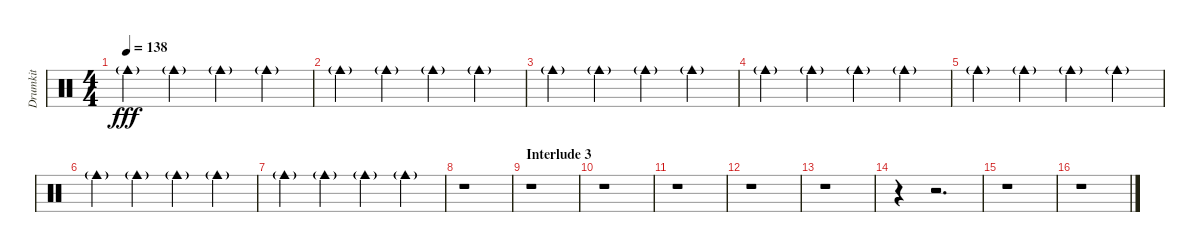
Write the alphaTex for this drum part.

\track ("Drumkit" "Drumkit") {instrument percussion}
\staff {score}
\articulation defaults
\ts (4 4)
\tempo 138
\clef neutral
\ks c "Cowbell medium (hit)"{g}.4{dy fff} "Cowbell medium (hit)"{g}.4 "Cowbell medium (hit)"{g}.4 "Cowbell medium (hit)"{g}.4
|
"Cowbell medium (hit)"{g}.4 "Cowbell medium (hit)"{g}.4 "Cowbell medium (hit)"{g}.4 "Cowbell medium (hit)"{g}.4 |
"Cowbell medium (hit)"{g}.4 "Cowbell medium (hit)"{g}.4 "Cowbell medium (hit)"{g}.4 "Cowbell medium (hit)"{g}.4 |
"Cowbell medium (hit)"{g}.4 "Cowbell medium (hit)"{g}.4 "Cowbell medium (hit)"{g}.4 "Cowbell medium (hit)"{g}.4 |
"Cowbell medium (hit)"{g}.4 "Cowbell medium (hit)"{g}.4 "Cowbell medium (hit)"{g}.4 "Cowbell medium (hit)"{g}.4 |
"Cowbell medium (hit)"{g}.4 "Cowbell medium (hit)"{g}.4 "Cowbell medium (hit)"{g}.4 "Cowbell medium (hit)"{g}.4 |
"Cowbell medium (hit)"{g}.4 "Cowbell medium (hit)"{g}.4 "Cowbell medium (hit)"{g}.4 "Cowbell medium (hit)"{g}.4 |
r.1 |
\section ("" "Interlude 3")
r.1 |
r.1 |
r.1 |
r.1 |
r.1 |
r.4 r.2{d} |
r.1 |
r.1
